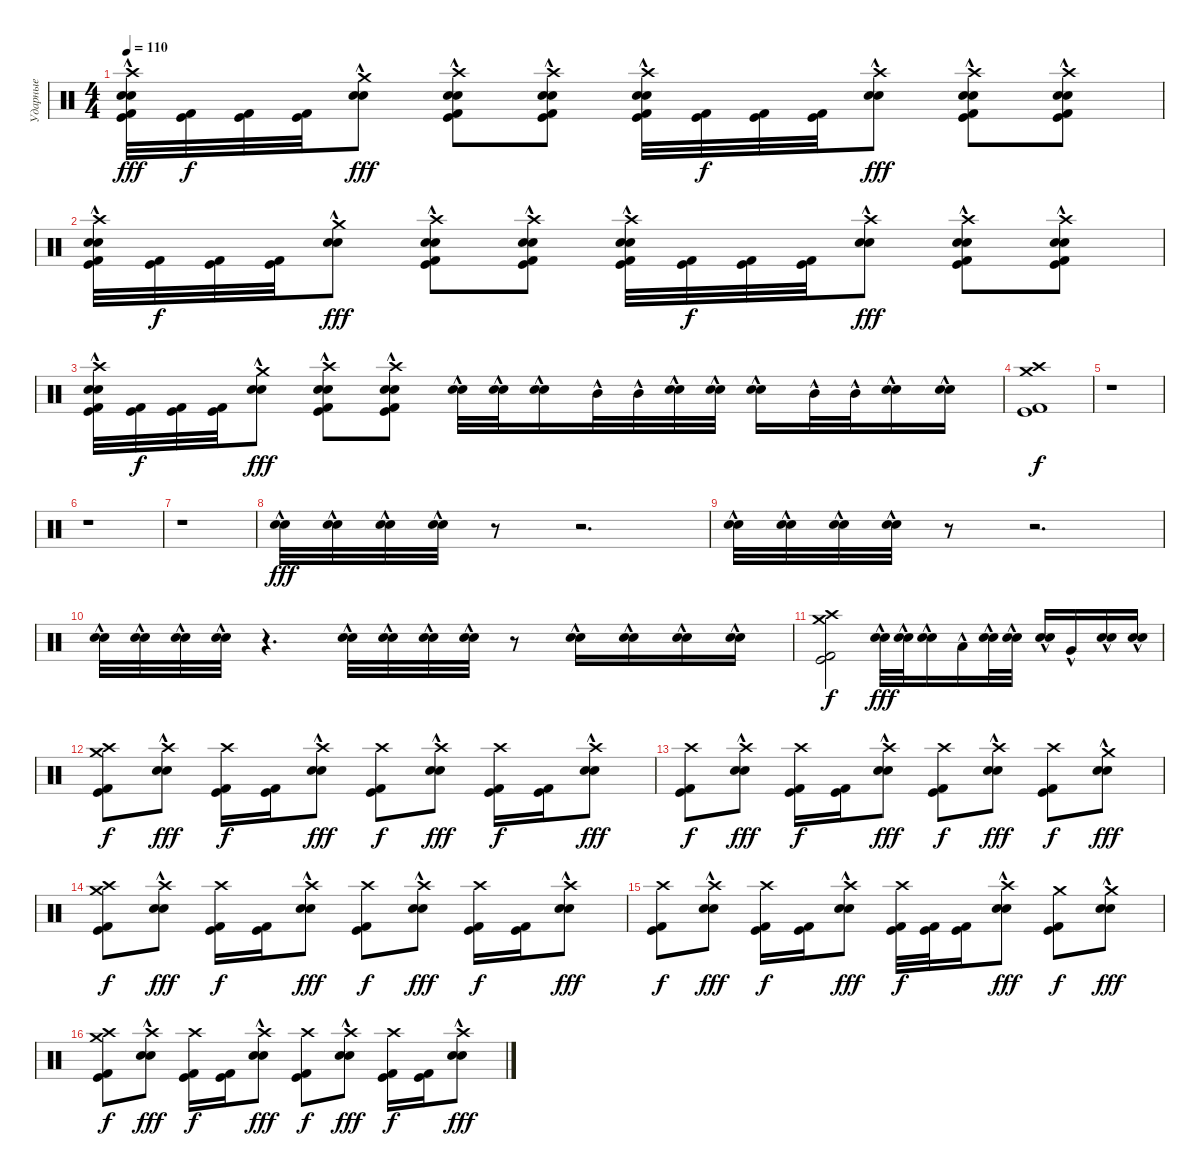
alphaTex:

\track ("Ударные" "Ударные") {instrument percussion}
\staff {score}
\articulation defaults
\ts (4 4)
\tempo 110
\clef neutral
\ks c
("Crash high (hit)" "Kick (hit)" "Kick (hit) 2" "Snare (hit) 2"{hac} "Electric Snare (hit)"{hac}).32{dy fff} ("Kick (hit)" "Kick (hit) 2").32{dy f} ("Kick (hit)" "Kick (hit) 2").32 ("Kick (hit)" "Kick (hit) 2").32 ("Crash medium (hit)" "Snare (hit) 2"{hac} "Electric Snare (hit)"{hac}).8{dy fff} ("Crash high (hit)" "Kick (hit)" "Kick (hit) 2" "Snare (hit) 2"{hac} "Electric Snare (hit)"{hac}).8 ("Crash high (hit)" "Kick (hit)" "Kick (hit) 2" "Snare (hit) 2"{hac} "Electric Snare (hit)"{hac}).8 ("Crash high (hit)" "Kick (hit)" "Kick (hit) 2" "Snare (hit) 2"{hac} "Electric Snare (hit)"{hac}).32 ("Kick (hit)" "Kick (hit) 2").32{dy f} ("Kick (hit)" "Kick (hit) 2").32 ("Kick (hit)" "Kick (hit) 2").32 ("Crash high (hit)" "Snare (hit) 2"{hac} "Electric Snare (hit)"{hac}).8{dy fff} ("Crash high (hit)" "Kick (hit)" "Kick (hit) 2" "Snare (hit) 2"{hac} "Electric Snare (hit)"{hac}).8 ("Crash high (hit)" "Kick (hit)" "Kick (hit) 2" "Snare (hit) 2"{hac} "Electric Snare (hit)"{hac}).8 |
("Crash high (hit)" "Kick (hit)" "Kick (hit) 2" "Snare (hit) 2"{hac} "Electric Snare (hit)"{hac}).32 ("Kick (hit)" "Kick (hit) 2").32{dy f} ("Kick (hit)" "Kick (hit) 2").32 ("Kick (hit)" "Kick (hit) 2").32 ("Crash medium (hit)" "Snare (hit) 2"{hac} "Electric Snare (hit)"{hac}).8{dy fff} ("Crash high (hit)" "Kick (hit)" "Kick (hit) 2" "Snare (hit) 2"{hac} "Electric Snare (hit)"{hac}).8 ("Crash high (hit)" "Kick (hit)" "Kick (hit) 2" "Snare (hit) 2"{hac} "Electric Snare (hit)"{hac}).8 ("Crash high (hit)" "Kick (hit)" "Kick (hit) 2" "Snare (hit) 2"{hac} "Electric Snare (hit)"{hac}).32 ("Kick (hit)" "Kick (hit) 2").32{dy f} ("Kick (hit)" "Kick (hit) 2").32 ("Kick (hit)" "Kick (hit) 2").32 ("Crash high (hit)" "Snare (hit) 2"{hac} "Electric Snare (hit)"{hac}).8{dy fff} ("Crash high (hit)" "Kick (hit)" "Kick (hit) 2" "Snare (hit) 2"{hac} "Electric Snare (hit)"{hac}).8 ("Crash high (hit)" "Kick (hit)" "Kick (hit) 2" "Snare (hit) 2"{hac} "Electric Snare (hit)"{hac}).8 |
("Crash high (hit)" "Kick (hit)" "Kick (hit) 2" "Snare (hit) 2"{hac} "Electric Snare (hit)"{hac}).32 ("Kick (hit)" "Kick (hit) 2").32{dy f} ("Kick (hit)" "Kick (hit) 2").32 ("Kick (hit)" "Kick (hit) 2").32 ("Crash medium (hit)" "Snare (hit) 2"{hac} "Electric Snare (hit)"{hac}).8{dy fff} ("Crash high (hit)" "Kick (hit)" "Kick (hit) 2" "Snare (hit) 2"{hac} "Electric Snare (hit)"{hac}).8 ("Crash high (hit)" "Kick (hit)" "Kick (hit) 2" "Snare (hit) 2"{hac} "Electric Snare (hit)"{hac}).8 ("Snare (hit) 2"{hac} "Electric Snare (hit)"{hac}).32 ("Snare (hit) 2"{hac} "Electric Snare (hit)"{hac}).32 ("Snare (hit) 2"{hac} "Electric Snare (hit)"{hac}).16 "Mid Tom (hit)"{hac}.32 "Mid Tom (hit)"{hac}.32 ("Snare (hit) 2"{hac} "Electric Snare (hit)"{hac}).32 ("Snare (hit) 2"{hac} "Electric Snare (hit)"{hac}).32 ("Snare (hit) 2"{hac} "Electric Snare (hit)"{hac}).16 "Mid Tom (hit)"{hac}.32 "Mid Tom (hit)"{hac}.32 ("Snare (hit) 2"{hac} "Electric Snare (hit)"{hac}).16 ("Snare (hit) 2"{hac} "Electric Snare (hit)"{hac}).16 |
("Crash high (hit)" "Kick (hit)" "Kick (hit) 2" "Crash medium (hit)").1{dy f} |
r.1 |
r.1 |
r.1 |
("Snare (hit) 2"{hac} "Electric Snare (hit)"{hac}).32{dy fff} ("Snare (hit) 2"{hac} "Electric Snare (hit)"{hac}).32 ("Snare (hit) 2"{hac} "Electric Snare (hit)"{hac}).32 ("Snare (hit) 2"{hac} "Electric Snare (hit)"{hac}).32 r.8 r.2{d} |
("Snare (hit) 2"{hac} "Electric Snare (hit)"{hac}).32 ("Snare (hit) 2"{hac} "Electric Snare (hit)"{hac}).32 ("Snare (hit) 2"{hac} "Electric Snare (hit)"{hac}).32 ("Snare (hit) 2"{hac} "Electric Snare (hit)"{hac}).32 r.8 r.2{d} |
("Snare (hit) 2"{hac} "Electric Snare (hit)"{hac}).32 ("Snare (hit) 2"{hac} "Electric Snare (hit)"{hac}).32 ("Snare (hit) 2"{hac} "Electric Snare (hit)"{hac}).32 ("Snare (hit) 2"{hac} "Electric Snare (hit)"{hac}).32 r.4{d} ("Snare (hit) 2"{hac} "Electric Snare (hit)"{hac}).32 ("Snare (hit) 2"{hac} "Electric Snare (hit)"{hac}).32 ("Snare (hit) 2"{hac} "Electric Snare (hit)"{hac}).32 ("Snare (hit) 2"{hac} "Electric Snare (hit)"{hac}).32 r.8 ("Snare (hit) 2"{hac} "Electric Snare (hit)"{hac}).16 ("Snare (hit) 2"{hac} "Electric Snare (hit)"{hac}).16 ("Snare (hit) 2"{hac} "Electric Snare (hit)"{hac}).16 ("Snare (hit) 2"{hac} "Electric Snare (hit)"{hac}).16 |
("Crash high (hit)" "Kick (hit)" "Kick (hit) 2" "Crash medium (hit)").2{dy f} ("Snare (hit) 2"{hac} "Electric Snare (hit)"{hac}).32{dy fff} ("Snare (hit) 2"{hac} "Electric Snare (hit)"{hac}).32 ("Snare (hit) 2"{hac} "Electric Snare (hit)"{hac}).16 "Low Tom (hit)"{hac}.16 ("Snare (hit) 2"{hac} "Electric Snare (hit)"{hac}).32 ("Snare (hit) 2"{hac} "Electric Snare (hit)"{hac}).32 ("Snare (hit) 2"{hac} "Electric Snare (hit)"{hac}).16 "Very Low Tom (hit)"{hac}.16 ("Snare (hit) 2"{hac} "Electric Snare (hit)"{hac}).16 ("Snare (hit) 2"{hac} "Electric Snare (hit)"{hac}).16 |
("Crash high (hit)" "Kick (hit)" "Kick (hit) 2" "Crash medium (hit)").8{dy f} ("Crash high (hit)" "Snare (hit) 2"{hac} "Electric Snare (hit)"{hac}).8{dy fff} ("Crash high (hit)" "Kick (hit)" "Kick (hit) 2").16{dy f} ("Kick (hit)" "Kick (hit) 2").16 ("Crash high (hit)" "Snare (hit) 2"{hac} "Electric Snare (hit)"{hac}).8{dy fff} ("Crash high (hit)" "Kick (hit)" "Kick (hit) 2").8{dy f} ("Crash high (hit)" "Snare (hit) 2"{hac} "Electric Snare (hit)"{hac}).8{dy fff} ("Crash high (hit)" "Kick (hit)" "Kick (hit) 2").16{dy f} ("Kick (hit)" "Kick (hit) 2").16 ("Crash high (hit)" "Snare (hit) 2"{hac} "Electric Snare (hit)"{hac}).8{dy fff} |
("Crash high (hit)" "Kick (hit)" "Kick (hit) 2").8{dy f} ("Crash high (hit)" "Snare (hit) 2"{hac} "Electric Snare (hit)"{hac}).8{dy fff} ("Crash high (hit)" "Kick (hit)" "Kick (hit) 2").16{dy f} ("Kick (hit)" "Kick (hit) 2").16 ("Crash high (hit)" "Snare (hit) 2"{hac} "Electric Snare (hit)"{hac}).8{dy fff} ("Crash high (hit)" "Kick (hit)" "Kick (hit) 2").8{dy f} ("Crash high (hit)" "Snare (hit) 2"{hac} "Electric Snare (hit)"{hac}).8{dy fff} ("Crash high (hit)" "Kick (hit)" "Kick (hit) 2").8{dy f} ("Crash medium (hit)" "Snare (hit) 2"{hac} "Electric Snare (hit)"{hac}).8{dy fff} |
("Crash high (hit)" "Kick (hit)" "Kick (hit) 2" "Crash medium (hit)").8{dy f} ("Crash high (hit)" "Snare (hit) 2"{hac} "Electric Snare (hit)"{hac}).8{dy fff} ("Crash high (hit)" "Kick (hit)" "Kick (hit) 2").16{dy f} ("Kick (hit)" "Kick (hit) 2").16 ("Crash high (hit)" "Snare (hit) 2"{hac} "Electric Snare (hit)"{hac}).8{dy fff} ("Crash high (hit)" "Kick (hit)" "Kick (hit) 2").8{dy f} ("Crash high (hit)" "Snare (hit) 2"{hac} "Electric Snare (hit)"{hac}).8{dy fff} ("Crash high (hit)" "Kick (hit)" "Kick (hit) 2").16{dy f} ("Kick (hit)" "Kick (hit) 2").16 ("Crash high (hit)" "Snare (hit) 2"{hac} "Electric Snare (hit)"{hac}).8{dy fff} |
("Crash high (hit)" "Kick (hit)" "Kick (hit) 2").8{dy f} ("Crash high (hit)" "Snare (hit) 2"{hac} "Electric Snare (hit)"{hac}).8{dy fff} ("Crash high (hit)" "Kick (hit)" "Kick (hit) 2").16{dy f} ("Kick (hit)" "Kick (hit) 2").16 ("Crash high (hit)" "Snare (hit) 2"{hac} "Electric Snare (hit)"{hac}).8{dy fff} ("Crash high (hit)" "Kick (hit)" "Kick (hit) 2").32{dy f} ("Kick (hit)" "Kick (hit) 2").32 ("Kick (hit)" "Kick (hit) 2").16 ("Crash high (hit)" "Snare (hit) 2"{hac} "Electric Snare (hit)"{hac}).8{dy fff} ("Crash medium (hit)" "Kick (hit)" "Kick (hit) 2").8{dy f} ("Crash medium (hit)" "Snare (hit) 2"{hac} "Electric Snare (hit)"{hac}).8{dy fff} |
("Crash high (hit)" "Kick (hit)" "Kick (hit) 2" "Crash medium (hit)").8{dy f} ("Crash high (hit)" "Snare (hit) 2"{hac} "Electric Snare (hit)"{hac}).8{dy fff} ("Crash high (hit)" "Kick (hit)" "Kick (hit) 2").16{dy f} ("Kick (hit)" "Kick (hit) 2").16 ("Crash high (hit)" "Snare (hit) 2"{hac} "Electric Snare (hit)"{hac}).8{dy fff} ("Crash high (hit)" "Kick (hit)" "Kick (hit) 2").8{dy f} ("Crash high (hit)" "Snare (hit) 2"{hac} "Electric Snare (hit)"{hac}).8{dy fff} ("Crash high (hit)" "Kick (hit)" "Kick (hit) 2").16{dy f} ("Kick (hit)" "Kick (hit) 2").16 ("Crash high (hit)" "Snare (hit) 2"{hac} "Electric Snare (hit)"{hac}).8{dy fff}
